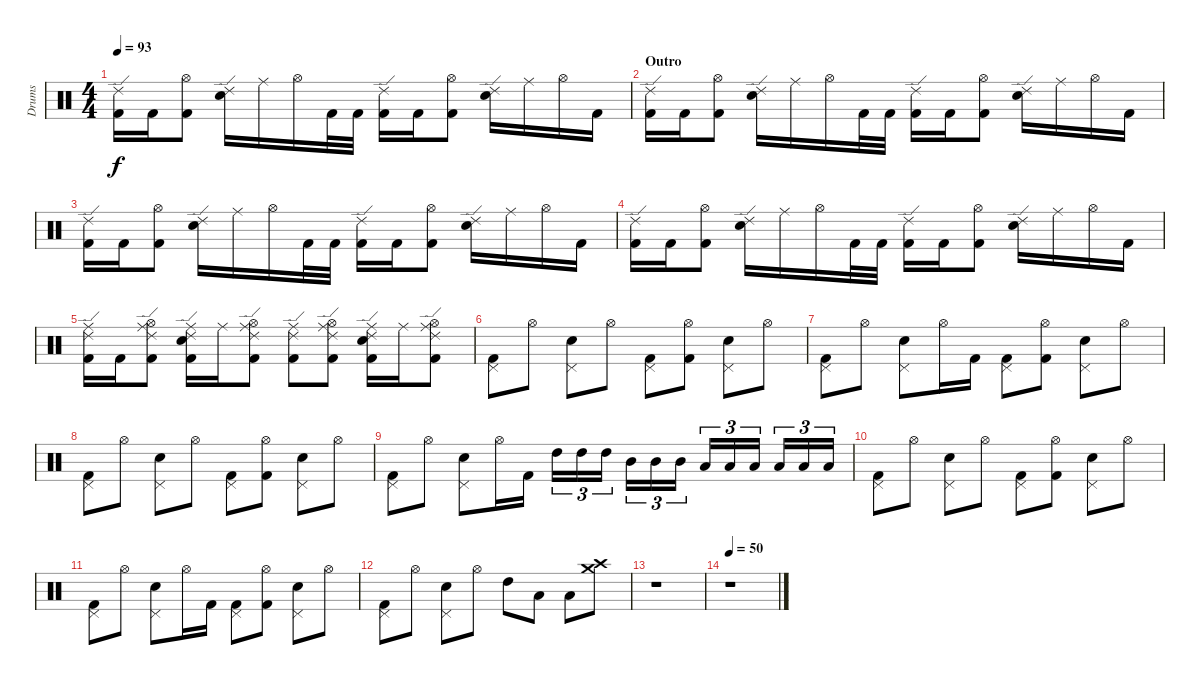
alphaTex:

\track ("Drums" "Drums") {instrument percussion}
\staff {score}
\articulation defaults
\ts (4 4)
\tempo 93
\clef neutral
\ks c
("Kick (hit) 2" "Ride (edge) 2").16{dy f} "Kick (hit) 2".16 ("Kick (hit) 2" "Hi-Hat (open)").8 ("Ride (edge) 2" "Snare (hit) 2").16 "Ride (middle)".16 "Hi-Hat (open)".16 "Kick (hit) 2".32 "Kick (hit) 2".32 ("Ride (edge) 2" "Kick (hit) 2").16 "Kick (hit) 2".16 ("Hi-Hat (open)" "Kick (hit) 2").8 ("Ride (edge) 2" "Snare (hit) 2").16 "Ride (middle)".16 "Hi-Hat (open)".16 "Kick (hit) 2".16 |
\section ("" "Outro")
("Kick (hit) 2" "Ride (edge) 2").16 "Kick (hit) 2".16 ("Kick (hit) 2" "Hi-Hat (open)").8 ("Ride (edge) 2" "Snare (hit) 2").16 "Ride (middle)".16 "Hi-Hat (open)".16 "Kick (hit) 2".32 "Kick (hit) 2".32 ("Ride (edge) 2" "Kick (hit) 2").16 "Kick (hit) 2".16 ("Hi-Hat (open)" "Kick (hit) 2").8 ("Ride (edge) 2" "Snare (hit) 2").16 "Ride (middle)".16 "Hi-Hat (open)".16 "Kick (hit) 2".16 |
("Kick (hit) 2" "Ride (edge) 2").16 "Kick (hit) 2".16 ("Kick (hit) 2" "Hi-Hat (open)").8 ("Ride (edge) 2" "Snare (hit) 2").16 "Ride (middle)".16 "Hi-Hat (open)".16 "Kick (hit) 2".32 "Kick (hit) 2".32 ("Ride (edge) 2" "Kick (hit) 2").16 "Kick (hit) 2".16 ("Hi-Hat (open)" "Kick (hit) 2").8 ("Ride (edge) 2" "Snare (hit) 2").16 "Ride (middle)".16 "Hi-Hat (open)".16 "Kick (hit) 2".16 |
("Kick (hit) 2" "Ride (edge) 2").16 "Kick (hit) 2".16 ("Kick (hit) 2" "Hi-Hat (open)").8 ("Ride (edge) 2" "Snare (hit) 2").16 "Ride (middle)".16 "Hi-Hat (open)".16 "Kick (hit) 2".32 "Kick (hit) 2".32 ("Ride (edge) 2" "Kick (hit) 2").16 "Kick (hit) 2".16 ("Hi-Hat (open)" "Kick (hit) 2").8 ("Ride (edge) 2" "Snare (hit) 2").16 "Ride (middle)".16 "Hi-Hat (open)".16 "Kick (hit) 2".16 |
("Kick (hit) 2" "Ride (edge) 2" "Ride (middle)").16 "Kick (hit) 2".16 ("Ride (edge) 2" "Kick (hit) 2" "Hi-Hat (open)" "Ride (middle)").8 ("Ride (edge) 2" "Kick (hit) 2" "Ride (middle)" "Snare (hit) 2").16 "Ride (middle)".16 ("Ride (edge) 2" "Hi-Hat (open)" "Ride (middle)" "Kick (hit) 2").8 ("Ride (edge) 2" "Kick (hit) 2" "Ride (middle)").8 ("Ride (edge) 2" "Hi-Hat (open)" "Kick (hit) 2" "Ride (middle)").8 ("Ride (edge) 2" "Kick (hit) 2" "Ride (middle)" "Snare (hit) 2").16 "Ride (middle)".16 ("Ride (edge) 2" "Hi-Hat (open)" "Ride (middle)" "Kick (hit) 2").8 |
("Pedal Hi-Hat (hit)" "Kick (hit) 2").8 "Hi-Hat (open)".8 ("Pedal Hi-Hat (hit)" "Snare (hit) 2").8 "Hi-Hat (open)".8 ("Pedal Hi-Hat (hit)" "Kick (hit) 2").8 ("Hi-Hat (open)" "Kick (hit) 2").8 ("Pedal Hi-Hat (hit)" "Snare (hit) 2").8 "Hi-Hat (open)".8 |
("Pedal Hi-Hat (hit)" "Kick (hit) 2").8 "Hi-Hat (open)".8 ("Pedal Hi-Hat (hit)" "Snare (hit) 2").8 "Hi-Hat (open)".16 "Kick (hit) 2".16 ("Pedal Hi-Hat (hit)" "Kick (hit) 2").8 ("Hi-Hat (open)" "Kick (hit) 2").8 ("Pedal Hi-Hat (hit)" "Snare (hit) 2").8 "Hi-Hat (open)".8 |
("Pedal Hi-Hat (hit)" "Kick (hit) 2").8 "Hi-Hat (open)".8 ("Pedal Hi-Hat (hit)" "Snare (hit) 2").8 "Hi-Hat (open)".8 ("Pedal Hi-Hat (hit)" "Kick (hit) 2").8 ("Hi-Hat (open)" "Kick (hit) 2").8 ("Pedal Hi-Hat (hit)" "Snare (hit) 2").8 "Hi-Hat (open)".8 |
("Pedal Hi-Hat (hit)" "Kick (hit) 2").8 "Hi-Hat (open)".8 ("Pedal Hi-Hat (hit)" "Snare (hit) 2").8 "Hi-Hat (open)".16 "Kick (hit) 2".16 "High Tom (hit)".16{tu (3 2)} "High Tom (hit)".16{tu (3 2)} "High Tom (hit)".16{tu (3 2)} "Mid Tom (hit)".16{tu (3 2)} "Mid Tom (hit)".16{tu (3 2)} "Mid Tom (hit)".16{tu (3 2)} "Low Tom (hit)".16{tu (3 2)} "Low Tom (hit)".16{tu (3 2)} "Low Tom (hit)".16{tu (3 2)} "Low Floor Tom (hit)".16{tu (3 2)} "Low Floor Tom (hit)".16{tu (3 2)} "Low Floor Tom (hit)".16{tu (3 2)} |
("Pedal Hi-Hat (hit)" "Kick (hit) 2").8 "Hi-Hat (open)".8 ("Pedal Hi-Hat (hit)" "Snare (hit) 2").8 "Hi-Hat (open)".8 ("Pedal Hi-Hat (hit)" "Kick (hit) 2").8 ("Hi-Hat (open)" "Kick (hit) 2").8 ("Pedal Hi-Hat (hit)" "Snare (hit) 2").8 "Hi-Hat (open)".8 |
("Pedal Hi-Hat (hit)" "Kick (hit) 2").8 "Hi-Hat (open)".8 ("Pedal Hi-Hat (hit)" "Snare (hit) 2").8 "Hi-Hat (open)".16 "Kick (hit) 2".16 ("Pedal Hi-Hat (hit)" "Kick (hit) 2").8 ("Hi-Hat (open)" "Kick (hit) 2").8 ("Pedal Hi-Hat (hit)" "Snare (hit) 2").8 "Hi-Hat (open)".8 |
("Pedal Hi-Hat (hit)" "Kick (hit) 2").8 "Hi-Hat (open)".8 ("Pedal Hi-Hat (hit)" "Snare (hit) 2").8 "Hi-Hat (open)".8 "High Tom (hit)".8 "Low Tom (hit)".8 "Low Floor Tom (hit)".8 ("Crash high (hit)" "Crash medium (hit)").8 |
r.1 |
\tempo 50
r.1
